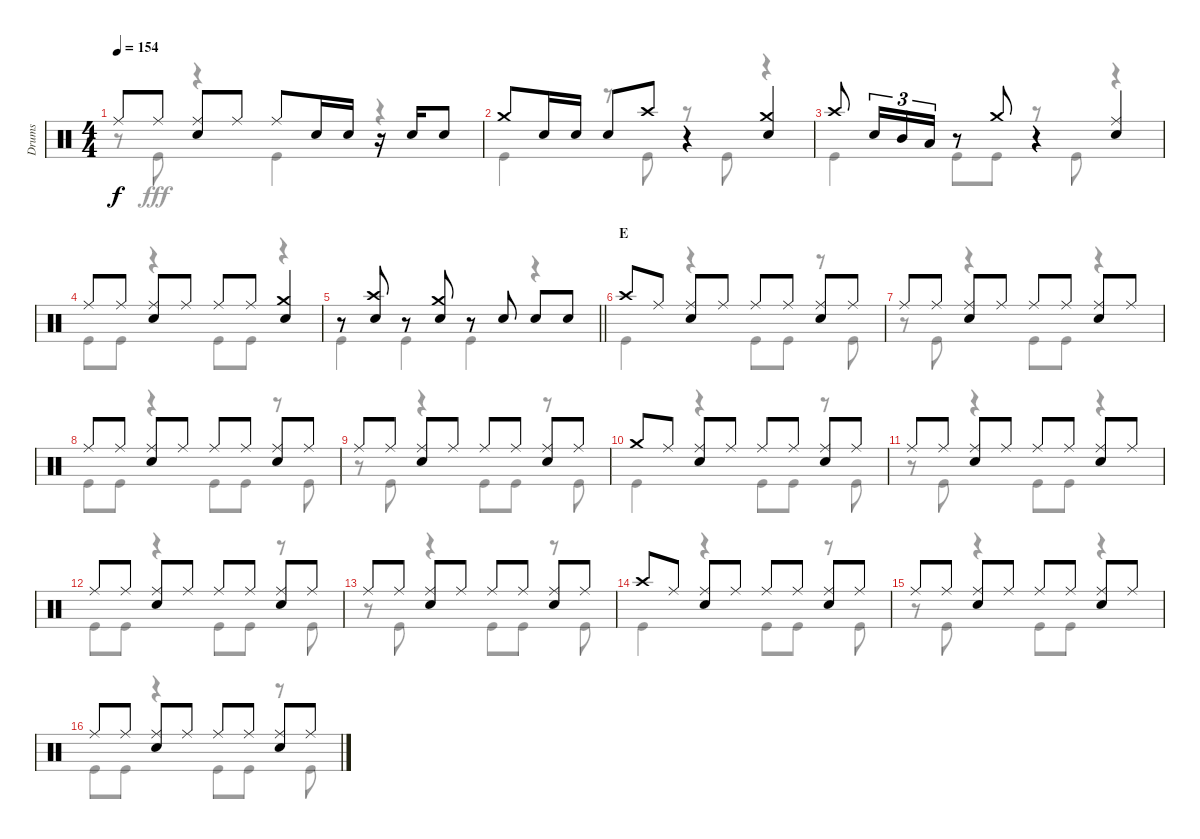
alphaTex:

\track ("Drums" "Drums") {instrument percussion}
\staff {score}
\articulation defaults
\voice
\ts (4 4)
\tempo 154
\clef neutral
\ks c "Ride (middle)".8{dy f} "Ride (middle)".8
("Ride (middle)" "Snare (hit) 2").8 "Ride (middle)".8 "Ride (middle)".8 "Snare (hit) 2".16 "Snare (hit) 2".16 r.16 "Snare (hit) 2".16 "Snare (hit) 2".8 |
"Crash medium (hit)".8 "Snare (hit) 2".16 "Snare (hit) 2".16 "Snare (hit) 2".8 "Crash high (hit)".8 r.4 ("Crash medium (hit)" "Snare (hit) 2").4 |
"Crash high (hit)".8 "Snare (hit) 2".16{tu (3 2)} "Mid Tom (hit)".16{tu (3 2)} "Low Tom (hit)".16{tu (3 2)} r.8 "Crash medium (hit)".8 r.4 ("Ride (middle)" "Snare (hit) 2").4 |
"Ride (middle)".8 "Ride (middle)".8 ("Ride (middle)" "Snare (hit) 2").8 "Ride (middle)".8 "Ride (middle)".8 "Ride (middle)".8 ("Crash medium (hit)" "Snare (hit) 2").4 |
\barLineRight lightlight
r.8 ("Crash high (hit)" "Snare (hit) 2").8 r.8 ("Crash medium (hit)" "Snare (hit) 2").8 r.8 "Snare (hit) 2".8 "Snare (hit) 2".8 "Snare (hit) 2".8 |
\section ("" "E")
"Crash high (hit)".8 "Ride (middle)".8 ("Ride (middle)" "Snare (hit) 2").8 "Ride (middle)".8 "Ride (middle)".8 "Ride (middle)".8 ("Ride (middle)" "Snare (hit) 2").8 "Ride (middle)".8 |
"Ride (middle)".8 "Ride (middle)".8 ("Ride (middle)" "Snare (hit) 2").8 "Ride (middle)".8 "Ride (middle)".8 "Ride (middle)".8 ("Ride (middle)" "Snare (hit) 2").8 "Ride (middle)".8 |
"Ride (middle)".8 "Ride (middle)".8 ("Ride (middle)" "Snare (hit) 2").8 "Ride (middle)".8 "Ride (middle)".8 "Ride (middle)".8 ("Ride (middle)" "Snare (hit) 2").8 "Ride (middle)".8 |
"Ride (middle)".8 "Ride (middle)".8 ("Ride (middle)" "Snare (hit) 2").8 "Ride (middle)".8 "Ride (middle)".8 "Ride (middle)".8 ("Ride (middle)" "Snare (hit) 2").8 "Ride (middle)".8 |
"Crash medium (hit)".8 "Ride (middle)".8 ("Ride (middle)" "Snare (hit) 2").8 "Ride (middle)".8 "Ride (middle)".8 "Ride (middle)".8 ("Ride (middle)" "Snare (hit) 2").8 "Ride (middle)".8 |
"Ride (middle)".8 "Ride (middle)".8 ("Ride (middle)" "Snare (hit) 2").8 "Ride (middle)".8 "Ride (middle)".8 "Ride (middle)".8 ("Ride (middle)" "Snare (hit) 2").8 "Ride (middle)".8 |
"Ride (middle)".8 "Ride (middle)".8 ("Ride (middle)" "Snare (hit) 2").8 "Ride (middle)".8 "Ride (middle)".8 "Ride (middle)".8 ("Ride (middle)" "Snare (hit) 2").8 "Ride (middle)".8 |
"Ride (middle)".8 "Ride (middle)".8 ("Ride (middle)" "Snare (hit) 2").8 "Ride (middle)".8 "Ride (middle)".8 "Ride (middle)".8 ("Ride (middle)" "Snare (hit) 2").8 "Ride (middle)".8 |
"Crash high (hit)".8 "Ride (middle)".8 ("Ride (middle)" "Snare (hit) 2").8 "Ride (middle)".8 "Ride (middle)".8 "Ride (middle)".8 ("Ride (middle)" "Snare (hit) 2").8 "Ride (middle)".8 |
"Ride (middle)".8 "Ride (middle)".8 ("Ride (middle)" "Snare (hit) 2").8 "Ride (middle)".8 "Ride (middle)".8 "Ride (middle)".8 ("Ride (middle)" "Snare (hit) 2").8 "Ride (middle)".8 |
"Ride (middle)".8 "Ride (middle)".8 ("Ride (middle)" "Snare (hit) 2").8 "Ride (middle)".8 "Ride (middle)".8 "Ride (middle)".8 ("Ride (middle)" "Snare (hit) 2").8 "Ride (middle)".8
\voice
\clef neutral
\ottava regular
\simile none
\ks c
r.8{dy fff} "Kick (hit)".8 r.4 "Kick (hit)".4 r.4 |
"Kick (hit)".4 r.8 "Kick (hit)".8 r.8 "Kick (hit)".8 r.4 |
"Kick (hit)".4 "Kick (hit)".8 "Kick (hit)".8 r.8 "Kick (hit)".8 r.4 |
"Kick (hit)".8 "Kick (hit)".8 r.4 "Kick (hit)".8 "Kick (hit)".8 r.4 |
\barLineRight lightlight "Kick (hit)".4 "Kick (hit)".4 "Kick (hit)".4
r.4 |
"Kick (hit)".4 r.4 "Kick (hit)".8 "Kick (hit)".8 r.8 "Kick (hit)".8 |
r.8 "Kick (hit)".8 r.4 "Kick (hit)".8 "Kick (hit)".8 r.4 |
"Kick (hit)".8 "Kick (hit)".8 r.4 "Kick (hit)".8 "Kick (hit)".8 r.8 "Kick (hit)".8 |
r.8 "Kick (hit)".8 r.4 "Kick (hit)".8 "Kick (hit)".8 r.8 "Kick (hit)".8 |
"Kick (hit)".4 r.4 "Kick (hit)".8 "Kick (hit)".8 r.8 "Kick (hit)".8 |
r.8 "Kick (hit)".8 r.4 "Kick (hit)".8 "Kick (hit)".8 r.4 |
"Kick (hit)".8 "Kick (hit)".8 r.4 "Kick (hit)".8 "Kick (hit)".8 r.8 "Kick (hit)".8 |
r.8 "Kick (hit)".8 r.4 "Kick (hit)".8 "Kick (hit)".8 r.8 "Kick (hit)".8 |
"Kick (hit)".4 r.4 "Kick (hit)".8 "Kick (hit)".8 r.8 "Kick (hit)".8 |
r.8 "Kick (hit)".8 r.4 "Kick (hit)".8 "Kick (hit)".8 r.4 |
"Kick (hit)".8 "Kick (hit)".8 r.4 "Kick (hit)".8 "Kick (hit)".8 r.8 "Kick (hit)".8
